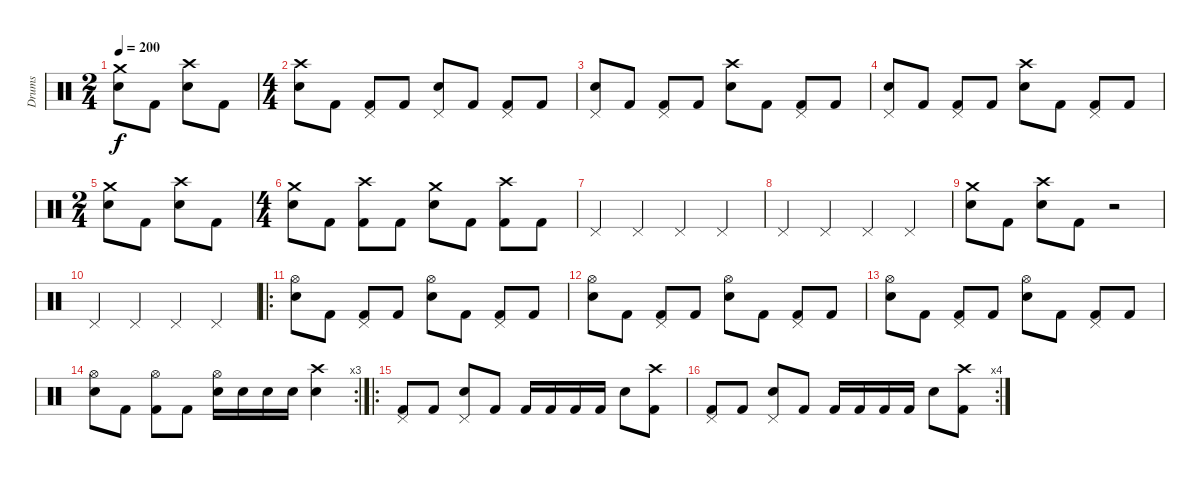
\track ("Drums" "Drums") {instrument percussion}
\staff {score}
\articulation defaults
\ts (2 4)
\tempo 200
\clef neutral
\ks c
("Crash medium (hit)" "Electric Snare (hit)").8{dy f} "Kick (hit) 2".8 ("Crash high (hit)" "Electric Snare (hit)").8 "Kick (hit) 2".8 |
\ts (4 4)
("Crash high (hit)" "Electric Snare (hit)").8 "Kick (hit) 2".8 ("Pedal Hi-Hat (hit)" "Kick (hit) 2").8 "Kick (hit) 2".8 ("Pedal Hi-Hat (hit)" "Electric Snare (hit)").8 "Kick (hit) 2".8 ("Pedal Hi-Hat (hit)" "Kick (hit) 2").8 "Kick (hit) 2".8 |
("Pedal Hi-Hat (hit)" "Electric Snare (hit)").8 "Kick (hit) 2".8 ("Pedal Hi-Hat (hit)" "Kick (hit) 2").8 "Kick (hit) 2".8 ("Crash high (hit)" "Electric Snare (hit)").8 "Kick (hit) 2".8 ("Pedal Hi-Hat (hit)" "Kick (hit) 2").8 "Kick (hit) 2".8 |
("Pedal Hi-Hat (hit)" "Electric Snare (hit)").8 "Kick (hit) 2".8 ("Pedal Hi-Hat (hit)" "Kick (hit) 2").8 "Kick (hit) 2".8 ("Crash high (hit)" "Electric Snare (hit)").8 "Kick (hit) 2".8 ("Pedal Hi-Hat (hit)" "Kick (hit) 2").8 "Kick (hit) 2".8 |
\ts (2 4)
("Crash medium (hit)" "Electric Snare (hit)").8 "Kick (hit) 2".8 ("Crash high (hit)" "Electric Snare (hit)").8 "Kick (hit) 2".8 |
\ts (4 4)
("Crash medium (hit)" "Electric Snare (hit)").8 "Kick (hit) 2".8 ("Crash high (hit)" "Kick (hit) 2").8 "Kick (hit) 2".8 ("Crash medium (hit)" "Electric Snare (hit)").8 "Kick (hit) 2".8 ("Crash high (hit)" "Kick (hit) 2").8 "Kick (hit) 2".8 |
"Pedal Hi-Hat (hit)".4 "Pedal Hi-Hat (hit)".4 "Pedal Hi-Hat (hit)".4 "Pedal Hi-Hat (hit)".4 |
"Pedal Hi-Hat (hit)".4 "Pedal Hi-Hat (hit)".4 "Pedal Hi-Hat (hit)".4 "Pedal Hi-Hat (hit)".4 |
("Crash medium (hit)" "Electric Snare (hit)").8 "Kick (hit) 2".8 ("Crash high (hit)" "Electric Snare (hit)").8 "Kick (hit) 2".8 r.2 |
"Pedal Hi-Hat (hit)".4 "Pedal Hi-Hat (hit)".4 "Pedal Hi-Hat (hit)".4 "Pedal Hi-Hat (hit)".4 |
\ro
("Hi-Hat (open)" "Electric Snare (hit)").8 "Kick (hit) 2".8 ("Pedal Hi-Hat (hit)" "Kick (hit) 2").8 "Kick (hit) 2".8 ("Hi-Hat (open)" "Electric Snare (hit)").8 "Kick (hit) 2".8 ("Pedal Hi-Hat (hit)" "Kick (hit) 2").8 "Kick (hit) 2".8 |
("Hi-Hat (open)" "Electric Snare (hit)").8 "Kick (hit) 2".8 ("Pedal Hi-Hat (hit)" "Kick (hit) 2").8 "Kick (hit) 2".8 ("Hi-Hat (open)" "Electric Snare (hit)").8 "Kick (hit) 2".8 ("Pedal Hi-Hat (hit)" "Kick (hit) 2").8 "Kick (hit) 2".8 |
("Hi-Hat (open)" "Electric Snare (hit)").8 "Kick (hit) 2".8 ("Pedal Hi-Hat (hit)" "Kick (hit) 2").8 "Kick (hit) 2".8 ("Hi-Hat (open)" "Electric Snare (hit)").8 "Kick (hit) 2".8 ("Pedal Hi-Hat (hit)" "Kick (hit) 2").8 "Kick (hit) 2".8 |
\rc 3
("Hi-Hat (open)" "Electric Snare (hit)").8 "Kick (hit) 2".8 ("Hi-Hat (open)" "Kick (hit) 2").8 "Kick (hit) 2".8 ("Hi-Hat (open)" "Electric Snare (hit)").16 "Electric Snare (hit)".16 "Electric Snare (hit)".16 "Electric Snare (hit)".16 ("Crash high (hit)" "Electric Snare (hit)").4 |
\ro
("Pedal Hi-Hat (hit)" "Kick (hit) 2").8 "Kick (hit) 2".8 ("Pedal Hi-Hat (hit)" "Electric Snare (hit)").8 "Kick (hit) 2".8 "Kick (hit) 2".16 "Kick (hit) 2".16 "Kick (hit) 2".16 "Kick (hit) 2".16 "Electric Snare (hit)".8 ("Crash high (hit)" "Kick (hit) 2").8 |
\rc 4
("Pedal Hi-Hat (hit)" "Kick (hit) 2").8 "Kick (hit) 2".8 ("Pedal Hi-Hat (hit)" "Electric Snare (hit)").8 "Kick (hit) 2".8 "Kick (hit) 2".16 "Kick (hit) 2".16 "Kick (hit) 2".16 "Kick (hit) 2".16 "Electric Snare (hit)".8 ("Crash high (hit)" "Kick (hit) 2").8
